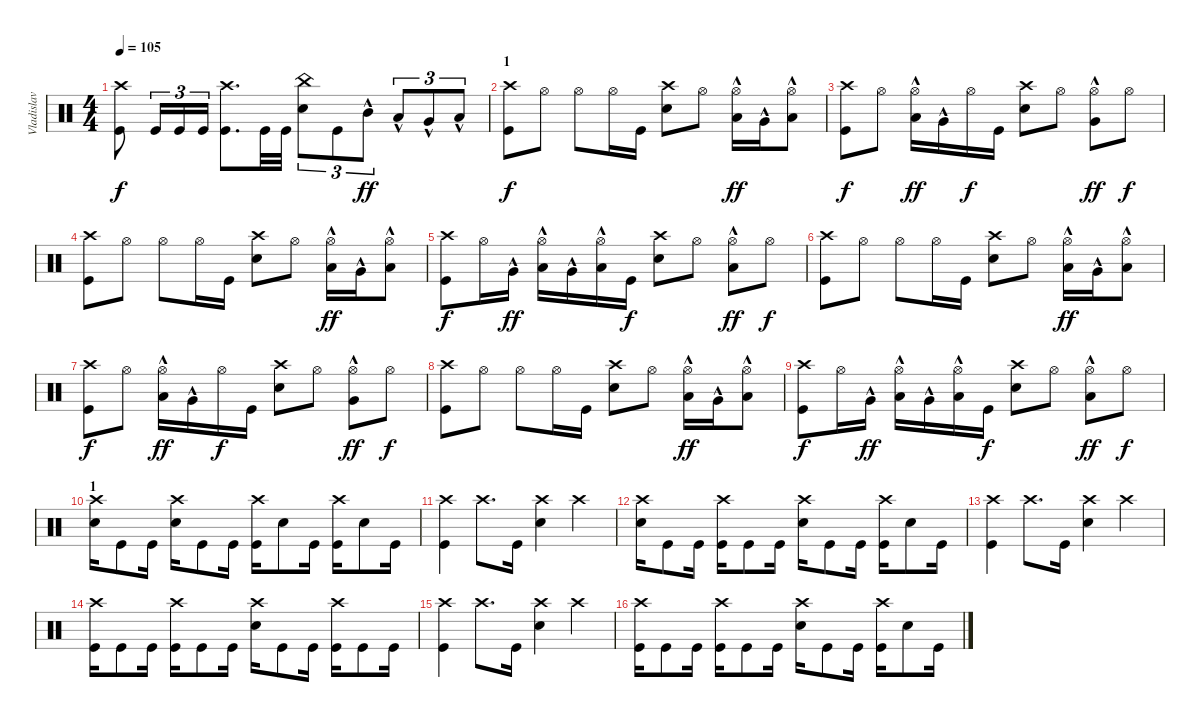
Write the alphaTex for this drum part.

\track ("Vladislav Ulasevish" "Vladislav ") {instrument percussion}
\staff {score}
\articulation defaults
\ts (4 4)
\tempo 105
\clef neutral
\ks c
("Kick (hit)" "Crash high (hit)").8{dy f} "Kick (hit)".16{tu (3 2)} "Kick (hit)".16{tu (3 2)} "Kick (hit)".16{tu (3 2)} ("Kick (hit)" "Crash high (hit)").8{d} "Kick (hit)".32 "Kick (hit)".32 ("Snare (hit) 2" "China (hit)").8{tu (3 2)} "Kick (hit)".8{tu (3 2)} "Mid Tom (hit)"{hac}.8{tu (3 2) dy ff} "Low Tom (hit)"{hac}.8{tu (3 2)} "Very Low Tom (hit)"{hac}.8{tu (3 2)} "Low Floor Tom (hit)"{hac}.8{tu (3 2)} |
\section ("" "1")
("Kick (hit)" "Crash high (hit)").8{dy f} "Hi-Hat (open)".8 "Hi-Hat (open)".8 "Hi-Hat (open)".16 "Kick (hit)".16 ("Snare (hit) 2" "Crash high (hit)").8 "Hi-Hat (open)".8 ("Hi-Hat (open)" "Low Tom (hit)"{hac}).16{dy ff} "Very Low Tom (hit)"{hac}.16 ("Hi-Hat (open)" "Low Floor Tom (hit)"{hac}).8 |
("Kick (hit)" "Crash high (hit)").8{dy f} "Hi-Hat (open)".8 ("Hi-Hat (open)" "Low Tom (hit)"{hac}).16{dy ff} "Very Low Tom (hit)"{hac}.16 "Hi-Hat (open)".16{dy f} "Kick (hit)".16 ("Snare (hit) 2" "Crash high (hit)").8 "Hi-Hat (open)".8 ("Hi-Hat (open)" "Very Low Tom (hit)"{hac}).8{dy ff} "Hi-Hat (open)".8{dy f} |
("Kick (hit)" "Crash high (hit)").8 "Hi-Hat (open)".8 "Hi-Hat (open)".8 "Hi-Hat (open)".16 "Kick (hit)".16 ("Snare (hit) 2" "Crash high (hit)").8 "Hi-Hat (open)".8 ("Hi-Hat (open)" "Low Tom (hit)"{hac}).16{dy ff} "Very Low Tom (hit)"{hac}.16 ("Hi-Hat (open)" "Low Floor Tom (hit)"{hac}).8 |
("Kick (hit)" "Crash high (hit)").8{dy f} "Hi-Hat (open)".16 "Very Low Tom (hit)"{hac}.16{dy ff} ("Hi-Hat (open)" "Low Tom (hit)"{hac}).16 "Very Low Tom (hit)"{hac}.16 ("Hi-Hat (open)" "Low Floor Tom (hit)"{hac}).16 "Kick (hit)".16{dy f} ("Snare (hit) 2" "Crash high (hit)").8 "Hi-Hat (open)".8 ("Hi-Hat (open)" "Low Floor Tom (hit)"{hac}).8{dy ff} "Hi-Hat (open)".8{dy f} |
("Kick (hit)" "Crash high (hit)").8 "Hi-Hat (open)".8 "Hi-Hat (open)".8 "Hi-Hat (open)".16 "Kick (hit)".16 ("Snare (hit) 2" "Crash high (hit)").8 "Hi-Hat (open)".8 ("Hi-Hat (open)" "Low Tom (hit)"{hac}).16{dy ff} "Very Low Tom (hit)"{hac}.16 ("Hi-Hat (open)" "Low Floor Tom (hit)"{hac}).8 |
("Kick (hit)" "Crash high (hit)").8{dy f} "Hi-Hat (open)".8 ("Hi-Hat (open)" "Low Tom (hit)"{hac}).16{dy ff} "Very Low Tom (hit)"{hac}.16 "Hi-Hat (open)".16{dy f} "Kick (hit)".16 ("Snare (hit) 2" "Crash high (hit)").8 "Hi-Hat (open)".8 ("Hi-Hat (open)" "Very Low Tom (hit)"{hac}).8{dy ff} "Hi-Hat (open)".8{dy f} |
("Kick (hit)" "Crash high (hit)").8 "Hi-Hat (open)".8 "Hi-Hat (open)".8 "Hi-Hat (open)".16 "Kick (hit)".16 ("Snare (hit) 2" "Crash high (hit)").8 "Hi-Hat (open)".8 ("Hi-Hat (open)" "Low Tom (hit)"{hac}).16{dy ff} "Very Low Tom (hit)"{hac}.16 ("Hi-Hat (open)" "Low Floor Tom (hit)"{hac}).8 |
("Kick (hit)" "Crash high (hit)").8{dy f} "Hi-Hat (open)".16 "Very Low Tom (hit)"{hac}.16{dy ff} ("Hi-Hat (open)" "Low Tom (hit)"{hac}).16 "Very Low Tom (hit)"{hac}.16 ("Hi-Hat (open)" "Low Floor Tom (hit)"{hac}).16 "Kick (hit)".16{dy f} ("Snare (hit) 2" "Crash high (hit)").8 "Hi-Hat (open)".8 ("Hi-Hat (open)" "Low Floor Tom (hit)"{hac}).8{dy ff} "Hi-Hat (open)".8{dy f} |
\section ("" "1")
("Snare (hit) 2" "Crash high (hit)").16 "Kick (hit)".8 "Kick (hit)".16 ("Snare (hit) 2" "Crash high (hit)").16 "Kick (hit)".8 "Kick (hit)".16 ("Kick (hit)" "Crash high (hit)").16 "Snare (hit) 2".8 "Kick (hit)".16 ("Kick (hit)" "Crash high (hit)").16 "Snare (hit) 2".8 "Kick (hit)".16 |
("Kick (hit)" "Crash high (hit)").4 "Crash high (hit)".8{d} "Kick (hit)".16 ("Crash high (hit)" "Snare (hit) 2").4 "Crash high (hit)".4 |
("Snare (hit) 2" "Crash high (hit)").16 "Kick (hit)".8 "Kick (hit)".16 ("Crash high (hit)" "Kick (hit)").16 "Kick (hit)".8 "Kick (hit)".16 ("Crash high (hit)" "Snare (hit) 2").16 "Kick (hit)".8 "Kick (hit)".16 ("Kick (hit)" "Crash high (hit)").16 "Snare (hit) 2".8 "Kick (hit)".16 |
("Kick (hit)" "Crash high (hit)").4 "Crash high (hit)".8{d} "Kick (hit)".16 ("Crash high (hit)" "Snare (hit) 2").4 "Crash high (hit)".4 |
("Crash high (hit)" "Kick (hit)").16 "Kick (hit)".8 "Kick (hit)".16 ("Crash high (hit)" "Kick (hit)").16 "Kick (hit)".8 "Kick (hit)".16 ("Crash high (hit)" "Snare (hit) 2").16 "Kick (hit)".8 "Kick (hit)".16 ("Kick (hit)" "Crash high (hit)").16 "Kick (hit)".8 "Kick (hit)".16 |
("Kick (hit)" "Crash high (hit)").4 "Crash high (hit)".8{d} "Kick (hit)".16 ("Crash high (hit)" "Snare (hit) 2").4 "Crash high (hit)".4 |
("Crash high (hit)" "Kick (hit)").16 "Kick (hit)".8 "Kick (hit)".16 ("Crash high (hit)" "Kick (hit)").16 "Kick (hit)".8 "Kick (hit)".16 ("Crash high (hit)" "Snare (hit) 2").16 "Kick (hit)".8 "Kick (hit)".16 ("Kick (hit)" "Crash high (hit)").16 "Snare (hit) 2".8 "Kick (hit)".16
